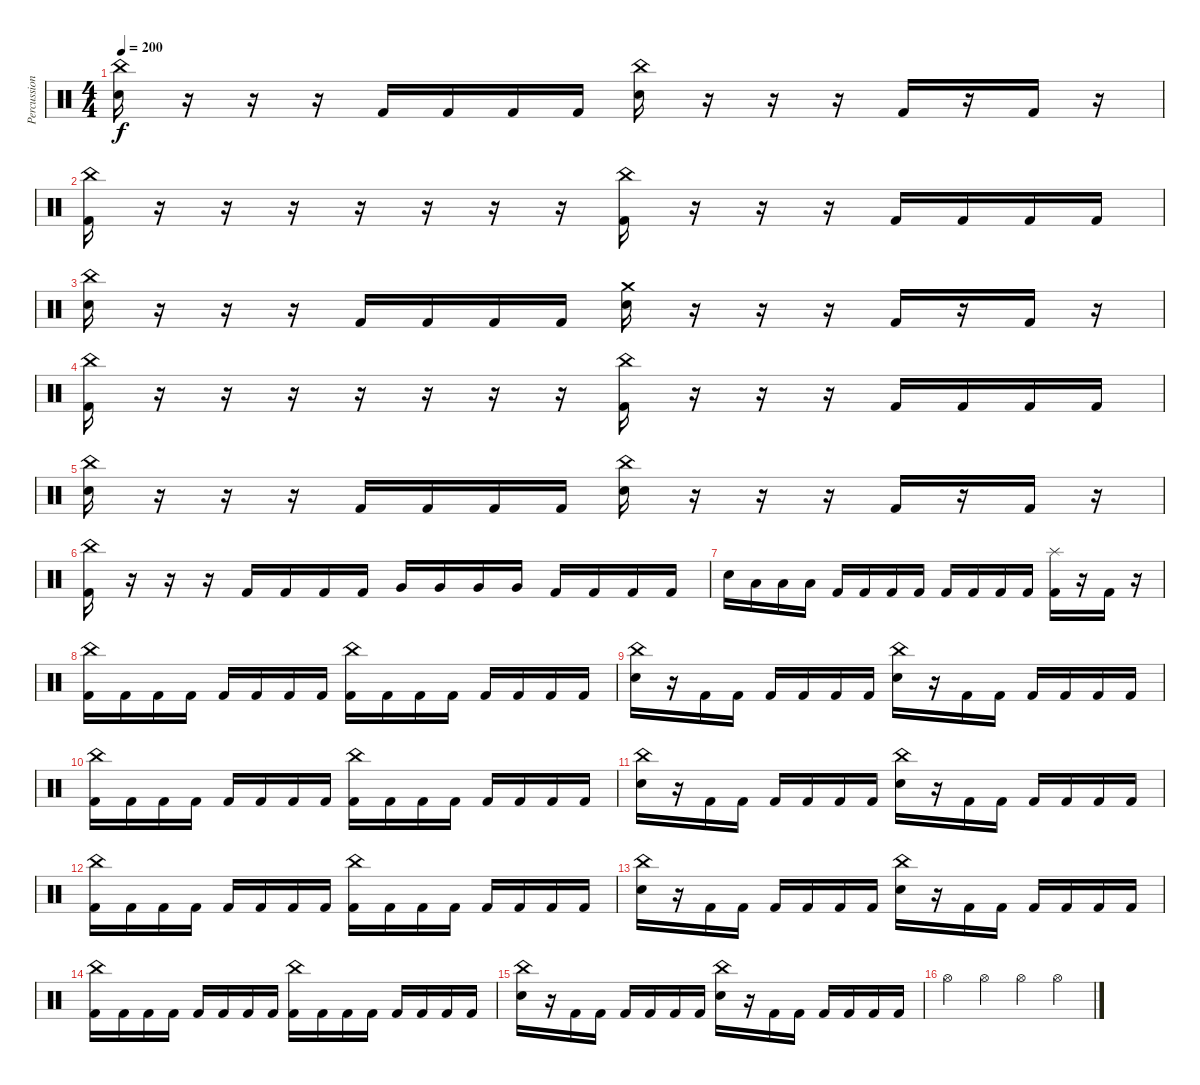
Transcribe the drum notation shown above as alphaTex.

\track ("Percussion" "Percussion") {instrument percussion}
\staff {score}
\articulation defaults
\ts (4 4)
\tempo 200
\clef neutral
\ks c
("China (hit)" "Electric Snare (hit)").16{dy f} r.16 r.16 r.16 "Kick (hit) 2".16 "Kick (hit) 2".16 "Kick (hit) 2".16 "Kick (hit) 2".16 ("China (hit)" "Electric Snare (hit)").16 r.16 r.16 r.16 "Kick (hit) 2".16 r.16 "Kick (hit) 2".16 r.16 |
("China (hit)" "Kick (hit) 2").16 r.16 r.16 r.16 r.16 r.16 r.16 r.16 ("China (hit)" "Kick (hit) 2").16 r.16 r.16 r.16 "Kick (hit) 2".16 "Kick (hit) 2".16 "Kick (hit) 2".16 "Kick (hit) 2".16 |
("China (hit)" "Electric Snare (hit)").16 r.16 r.16 r.16 "Kick (hit) 2".16 "Kick (hit) 2".16 "Kick (hit) 2".16 "Kick (hit) 2".16 ("Crash medium (hit)" "Electric Snare (hit)").16 r.16 r.16 r.16 "Kick (hit) 2".16 r.16 "Kick (hit) 2".16 r.16 |
("China (hit)" "Kick (hit) 2").16 r.16 r.16 r.16 r.16 r.16 r.16 r.16 ("China (hit)" "Kick (hit) 2").16 r.16 r.16 r.16 "Kick (hit) 2".16 "Kick (hit) 2".16 "Kick (hit) 2".16 "Kick (hit) 2".16 |
("China (hit)" "Electric Snare (hit)").16 r.16 r.16 r.16 "Kick (hit) 2".16 "Kick (hit) 2".16 "Kick (hit) 2".16 "Kick (hit) 2".16 ("China (hit)" "Electric Snare (hit)").16 r.16 r.16 r.16 "Kick (hit) 2".16 r.16 "Kick (hit) 2".16 r.16 |
("China (hit)" "Kick (hit) 2").16 r.16 r.16 r.16 "Kick (hit) 2".16 "Kick (hit) 2".16 "Kick (hit) 2".16 "Kick (hit) 2".16 "Very Low Tom (hit)".16 "Very Low Tom (hit)".16 "Very Low Tom (hit)".16 "Very Low Tom (hit)".16 "Kick (hit) 2".16 "Kick (hit) 2".16 "Kick (hit) 2".16 "Kick (hit) 2".16 |
"Electric Snare (hit)".16 "Low Tom (hit)".16 "Low Tom (hit)".16 "Low Tom (hit)".16 "Kick (hit) 2".16 "Kick (hit) 2".16 "Kick (hit) 2".16 "Kick (hit) 2".16 "Kick (hit) 2".16 "Kick (hit) 2".16 "Kick (hit) 2".16 "Kick (hit) 2".16 ("Splash (hit)" "Kick (hit) 2").16 r.16 "Kick (hit) 2".16 r.16 |
("China (hit)" "Kick (hit) 2").16 "Kick (hit) 2".16 "Kick (hit) 2".16 "Kick (hit) 2".16 "Kick (hit) 2".16 "Kick (hit) 2".16 "Kick (hit) 2".16 "Kick (hit) 2".16 ("China (hit)" "Kick (hit) 2").16 "Kick (hit) 2".16 "Kick (hit) 2".16 "Kick (hit) 2".16 "Kick (hit) 2".16 "Kick (hit) 2".16 "Kick (hit) 2".16 "Kick (hit) 2".16 |
("China (hit)" "Electric Snare (hit)").16 r.16 "Kick (hit) 2".16 "Kick (hit) 2".16 "Kick (hit) 2".16 "Kick (hit) 2".16 "Kick (hit) 2".16 "Kick (hit) 2".16 ("China (hit)" "Electric Snare (hit)").16 r.16 "Kick (hit) 2".16 "Kick (hit) 2".16 "Kick (hit) 2".16 "Kick (hit) 2".16 "Kick (hit) 2".16 "Kick (hit) 2".16 |
("China (hit)" "Kick (hit) 2").16 "Kick (hit) 2".16 "Kick (hit) 2".16 "Kick (hit) 2".16 "Kick (hit) 2".16 "Kick (hit) 2".16 "Kick (hit) 2".16 "Kick (hit) 2".16 ("China (hit)" "Kick (hit) 2").16 "Kick (hit) 2".16 "Kick (hit) 2".16 "Kick (hit) 2".16 "Kick (hit) 2".16 "Kick (hit) 2".16 "Kick (hit) 2".16 "Kick (hit) 2".16 |
("China (hit)" "Electric Snare (hit)").16 r.16 "Kick (hit) 2".16 "Kick (hit) 2".16 "Kick (hit) 2".16 "Kick (hit) 2".16 "Kick (hit) 2".16 "Kick (hit) 2".16 ("China (hit)" "Electric Snare (hit)").16 r.16 "Kick (hit) 2".16 "Kick (hit) 2".16 "Kick (hit) 2".16 "Kick (hit) 2".16 "Kick (hit) 2".16 "Kick (hit) 2".16 |
("China (hit)" "Kick (hit) 2").16 "Kick (hit) 2".16 "Kick (hit) 2".16 "Kick (hit) 2".16 "Kick (hit) 2".16 "Kick (hit) 2".16 "Kick (hit) 2".16 "Kick (hit) 2".16 ("China (hit)" "Kick (hit) 2").16 "Kick (hit) 2".16 "Kick (hit) 2".16 "Kick (hit) 2".16 "Kick (hit) 2".16 "Kick (hit) 2".16 "Kick (hit) 2".16 "Kick (hit) 2".16 |
("China (hit)" "Electric Snare (hit)").16 r.16 "Kick (hit) 2".16 "Kick (hit) 2".16 "Kick (hit) 2".16 "Kick (hit) 2".16 "Kick (hit) 2".16 "Kick (hit) 2".16 ("China (hit)" "Electric Snare (hit)").16 r.16 "Kick (hit) 2".16 "Kick (hit) 2".16 "Kick (hit) 2".16 "Kick (hit) 2".16 "Kick (hit) 2".16 "Kick (hit) 2".16 |
("China (hit)" "Kick (hit) 2").16 "Kick (hit) 2".16 "Kick (hit) 2".16 "Kick (hit) 2".16 "Kick (hit) 2".16 "Kick (hit) 2".16 "Kick (hit) 2".16 "Kick (hit) 2".16 ("China (hit)" "Kick (hit) 2").16 "Kick (hit) 2".16 "Kick (hit) 2".16 "Kick (hit) 2".16 "Kick (hit) 2".16 "Kick (hit) 2".16 "Kick (hit) 2".16 "Kick (hit) 2".16 |
("China (hit)" "Electric Snare (hit)").16 r.16 "Kick (hit) 2".16 "Kick (hit) 2".16 "Kick (hit) 2".16 "Kick (hit) 2".16 "Kick (hit) 2".16 "Kick (hit) 2".16 ("China (hit)" "Electric Snare (hit)").16 r.16 "Kick (hit) 2".16 "Kick (hit) 2".16 "Kick (hit) 2".16 "Kick (hit) 2".16 "Kick (hit) 2".16 "Kick (hit) 2".16 |
"Hi-Hat (open)".4 "Hi-Hat (open)".4 "Hi-Hat (open)".4 "Hi-Hat (open)".4
